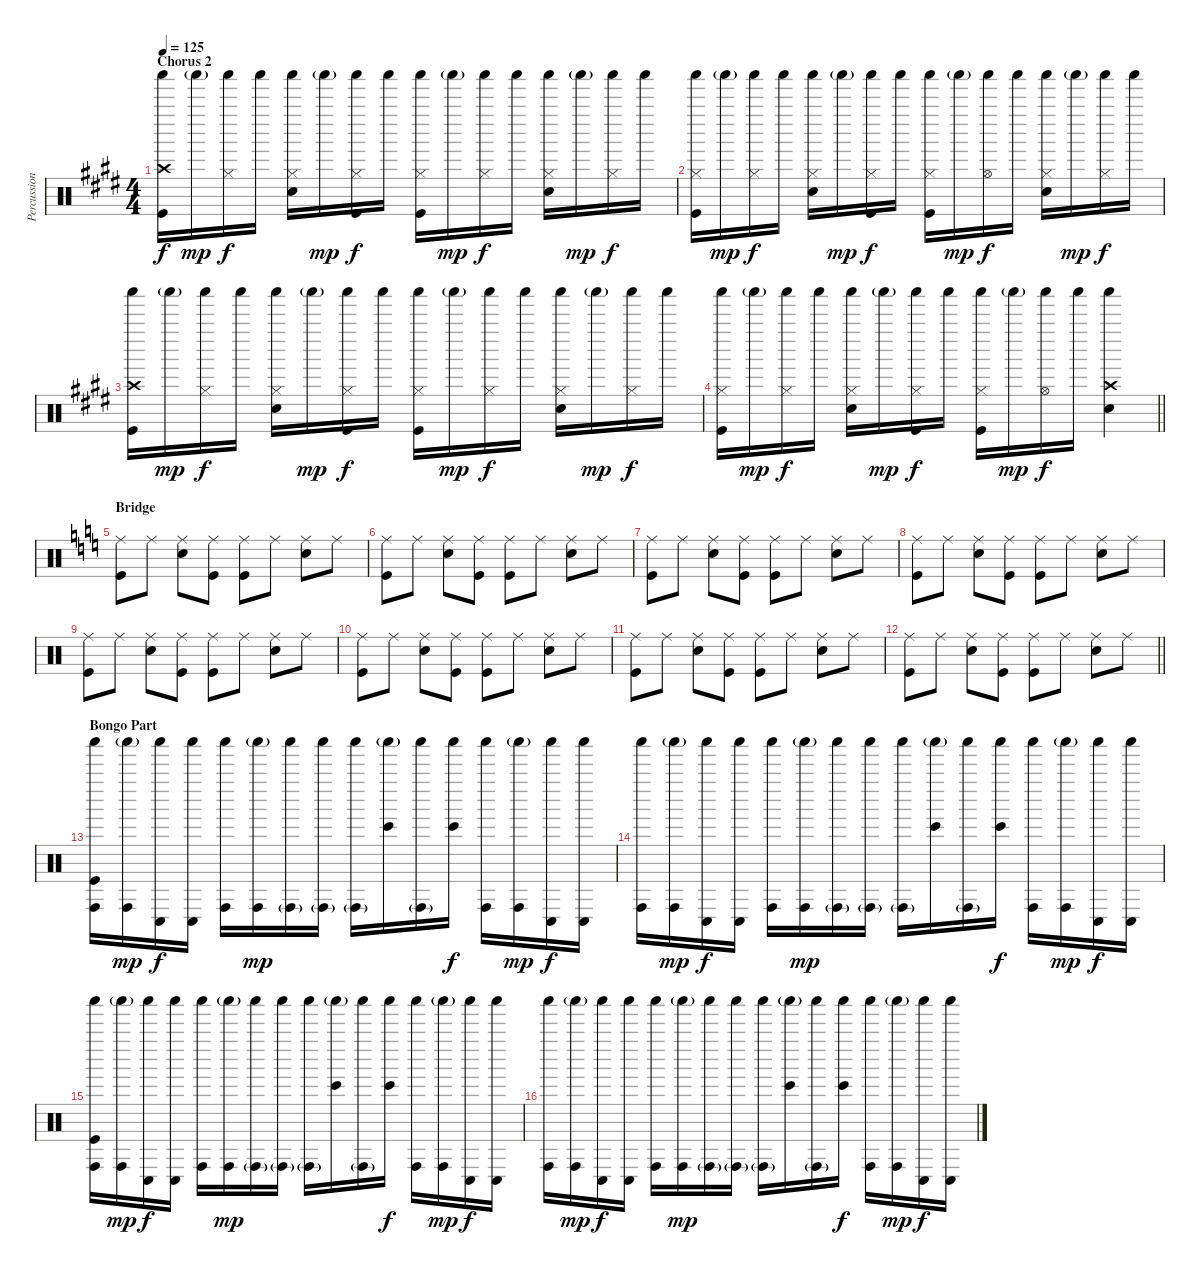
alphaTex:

\track ("Percussion" "Percussion") {instrument percussion}
\staff {score}
\articulation defaults
\ts (4 4)
\section ("" "Chorus 2")
\tempo 125
\clef neutral
\ks c#minor
("Crash high (hit)" "Shaker (hit)" "Kick (hit)").16{dy f} "Shaker (hit)"{g}.16{dy mp} ("Hi-Hat (closed)" "Shaker (hit)").16{dy f} "Shaker (hit)".16 ("Hi-Hat (closed)" "Shaker (hit)" "Electric Snare (hit)").16 "Shaker (hit)"{g}.16{dy mp} ("Hi-Hat (closed)" "Shaker (hit)" "Kick (hit)").16{dy f} "Shaker (hit)".16 ("Hi-Hat (closed)" "Shaker (hit)" "Kick (hit)").16 "Shaker (hit)"{g}.16{dy mp} ("Hi-Hat (closed)" "Shaker (hit)").16{dy f} "Shaker (hit)".16 ("Hi-Hat (closed)" "Shaker (hit)" "Electric Snare (hit)").16 "Shaker (hit)"{g}.16{dy mp} ("Hi-Hat (closed)" "Shaker (hit)").16{dy f} "Shaker (hit)".16 |
("Hi-Hat (closed)" "Shaker (hit)" "Kick (hit)").16 "Shaker (hit)"{g}.16{dy mp} ("Hi-Hat (closed)" "Shaker (hit)").16{dy f} "Shaker (hit)".16 ("Hi-Hat (closed)" "Shaker (hit)" "Electric Snare (hit)").16 "Shaker (hit)"{g}.16{dy mp} ("Hi-Hat (closed)" "Shaker (hit)" "Kick (hit)").16{dy f} "Shaker (hit)".16 ("Hi-Hat (closed)" "Shaker (hit)" "Kick (hit)").16 "Shaker (hit)"{g}.16{dy mp} ("Hi-Hat (open)" "Shaker (hit)").16{dy f} "Shaker (hit)".16 ("Hi-Hat (closed)" "Shaker (hit)" "Electric Snare (hit)").16 "Shaker (hit)"{g}.16{dy mp} ("Hi-Hat (closed)" "Shaker (hit)").16{dy f} "Shaker (hit)".16 |
("Crash high (hit)" "Shaker (hit)" "Kick (hit)").16 "Shaker (hit)"{g}.16{dy mp} ("Hi-Hat (closed)" "Shaker (hit)").16{dy f} "Shaker (hit)".16 ("Hi-Hat (closed)" "Shaker (hit)" "Electric Snare (hit)").16 "Shaker (hit)"{g}.16{dy mp} ("Hi-Hat (closed)" "Shaker (hit)" "Kick (hit)").16{dy f} "Shaker (hit)".16 ("Hi-Hat (closed)" "Shaker (hit)" "Kick (hit)").16 "Shaker (hit)"{g}.16{dy mp} ("Hi-Hat (closed)" "Shaker (hit)").16{dy f} "Shaker (hit)".16 ("Hi-Hat (closed)" "Shaker (hit)" "Electric Snare (hit)").16 "Shaker (hit)"{g}.16{dy mp} ("Hi-Hat (closed)" "Shaker (hit)").16{dy f} "Shaker (hit)".16 |
\barLineRight lightlight
("Hi-Hat (closed)" "Shaker (hit)" "Kick (hit)").16 "Shaker (hit)"{g}.16{dy mp} ("Hi-Hat (closed)" "Shaker (hit)").16{dy f} "Shaker (hit)".16 ("Hi-Hat (closed)" "Shaker (hit)" "Electric Snare (hit)").16 "Shaker (hit)"{g}.16{dy mp} ("Hi-Hat (closed)" "Shaker (hit)" "Kick (hit)").16{dy f} "Shaker (hit)".16 ("Hi-Hat (closed)" "Shaker (hit)" "Kick (hit)").16 "Shaker (hit)"{g}.16{dy mp} ("Hi-Hat (open)" "Shaker (hit)").16{dy f} "Shaker (hit)".16 ("Crash high (hit)" "Shaker (hit)" "Electric Snare (hit)").4 |
\section ("" "Bridge")
\ks c
("Ride (middle)" "Kick (hit)").8 "Ride (middle)".8 ("Ride (middle)" "Electric Snare (hit)").8 ("Ride (middle)" "Kick (hit)").8 ("Ride (middle)" "Kick (hit)").8 "Ride (middle)".8 ("Ride (middle)" "Electric Snare (hit)").8 "Ride (middle)".8 |
("Ride (middle)" "Kick (hit)").8 "Ride (middle)".8 ("Ride (middle)" "Electric Snare (hit)").8 ("Ride (middle)" "Kick (hit)").8 ("Ride (middle)" "Kick (hit)").8 "Ride (middle)".8 ("Ride (middle)" "Electric Snare (hit)").8 "Ride (middle)".8 |
("Ride (middle)" "Kick (hit)").8 "Ride (middle)".8 ("Ride (middle)" "Electric Snare (hit)").8 ("Ride (middle)" "Kick (hit)").8 ("Ride (middle)" "Kick (hit)").8 "Ride (middle)".8 ("Ride (middle)" "Electric Snare (hit)").8 "Ride (middle)".8 |
("Ride (middle)" "Kick (hit)").8 "Ride (middle)".8 ("Ride (middle)" "Electric Snare (hit)").8 ("Ride (middle)" "Kick (hit)").8 ("Ride (middle)" "Kick (hit)").8 "Ride (middle)".8 ("Ride (middle)" "Electric Snare (hit)").8 "Ride (middle)".8 |
("Ride (middle)" "Kick (hit)").8 "Ride (middle)".8 ("Ride (middle)" "Electric Snare (hit)").8 ("Ride (middle)" "Kick (hit)").8 ("Ride (middle)" "Kick (hit)").8 "Ride (middle)".8 ("Ride (middle)" "Electric Snare (hit)").8 "Ride (middle)".8 |
("Ride (middle)" "Kick (hit)").8 "Ride (middle)".8 ("Ride (middle)" "Electric Snare (hit)").8 ("Ride (middle)" "Kick (hit)").8 ("Ride (middle)" "Kick (hit)").8 "Ride (middle)".8 ("Ride (middle)" "Electric Snare (hit)").8 "Ride (middle)".8 |
("Ride (middle)" "Kick (hit)").8 "Ride (middle)".8 ("Ride (middle)" "Electric Snare (hit)").8 ("Ride (middle)" "Kick (hit)").8 ("Ride (middle)" "Kick (hit)").8 "Ride (middle)".8 ("Ride (middle)" "Electric Snare (hit)").8 "Ride (middle)".8 |
\barLineRight lightlight
("Ride (middle)" "Kick (hit)").8 "Ride (middle)".8 ("Ride (middle)" "Electric Snare (hit)").8 ("Ride (middle)" "Kick (hit)").8 ("Ride (middle)" "Kick (hit)").8 "Ride (middle)".8 ("Ride (middle)" "Electric Snare (hit)").8 "Ride (middle)".8 |
\section ("" "Bongo Part")
("Shaker (hit)" "Conga high (hit)" "Kick (hit)").16 ("Shaker (hit)"{g} "Conga high (hit)").16{dy mp} ("Shaker (hit)" "Conga low (hit)").16{dy f} ("Shaker (hit)" "Conga low (hit)").16 ("Shaker (hit)" "Conga high (hit)").16 ("Shaker (hit)"{g} "Conga high (hit)").16{dy mp} ("Shaker (hit)" "Conga high (hit)"{g}).16 ("Shaker (hit)" "Conga high (hit)"{g}).16 ("Shaker (hit)" "Conga high (hit)"{g}).16 ("Shaker (hit)"{g} "Bongo High (hit)").16 ("Shaker (hit)" "Conga high (hit)"{g}).16 ("Shaker (hit)" "Bongo High (hit)").16{dy f} ("Shaker (hit)" "Conga high (hit)").16 ("Shaker (hit)"{g} "Conga high (hit)").16{dy mp} ("Shaker (hit)" "Conga low (hit)").16{dy f} ("Shaker (hit)" "Conga low (hit)").16 |
("Shaker (hit)" "Conga high (hit)").16 ("Shaker (hit)"{g} "Conga high (hit)").16{dy mp} ("Shaker (hit)" "Conga low (hit)").16{dy f} ("Shaker (hit)" "Conga low (hit)").16 ("Shaker (hit)" "Conga high (hit)").16 ("Shaker (hit)"{g} "Conga high (hit)").16{dy mp} ("Shaker (hit)" "Conga high (hit)"{g}).16 ("Shaker (hit)" "Conga high (hit)"{g}).16 ("Shaker (hit)" "Conga high (hit)"{g}).16 ("Shaker (hit)"{g} "Bongo High (hit)").16 ("Shaker (hit)" "Conga high (hit)"{g}).16 ("Shaker (hit)" "Bongo High (hit)").16{dy f} ("Shaker (hit)" "Conga high (hit)").16 ("Shaker (hit)"{g} "Conga high (hit)").16{dy mp} ("Shaker (hit)" "Conga low (hit)").16{dy f} ("Shaker (hit)" "Conga low (hit)").16 |
("Shaker (hit)" "Conga high (hit)" "Kick (hit)").16 ("Shaker (hit)"{g} "Conga high (hit)").16{dy mp} ("Shaker (hit)" "Conga low (hit)").16{dy f} ("Shaker (hit)" "Conga low (hit)").16 ("Shaker (hit)" "Conga high (hit)").16 ("Shaker (hit)"{g} "Conga high (hit)").16{dy mp} ("Shaker (hit)" "Conga high (hit)"{g}).16 ("Shaker (hit)" "Conga high (hit)"{g}).16 ("Shaker (hit)" "Conga high (hit)"{g}).16 ("Shaker (hit)"{g} "Bongo High (hit)").16 ("Shaker (hit)" "Conga high (hit)"{g}).16 ("Shaker (hit)" "Bongo High (hit)").16{dy f} ("Shaker (hit)" "Conga high (hit)").16 ("Shaker (hit)"{g} "Conga high (hit)").16{dy mp} ("Shaker (hit)" "Conga low (hit)").16{dy f} ("Shaker (hit)" "Conga low (hit)").16 |
("Shaker (hit)" "Conga high (hit)").16 ("Shaker (hit)"{g} "Conga high (hit)").16{dy mp} ("Shaker (hit)" "Conga low (hit)").16{dy f} ("Shaker (hit)" "Conga low (hit)").16 ("Shaker (hit)" "Conga high (hit)").16 ("Shaker (hit)"{g} "Conga high (hit)").16{dy mp} ("Shaker (hit)" "Conga high (hit)"{g}).16 ("Shaker (hit)" "Conga high (hit)"{g}).16 ("Shaker (hit)" "Conga high (hit)"{g}).16 ("Shaker (hit)"{g} "Bongo High (hit)").16 ("Shaker (hit)" "Conga high (hit)"{g}).16 ("Shaker (hit)" "Bongo High (hit)").16{dy f} ("Shaker (hit)" "Conga high (hit)").16 ("Shaker (hit)"{g} "Conga high (hit)").16{dy mp} ("Shaker (hit)" "Conga low (hit)").16{dy f} ("Shaker (hit)" "Conga low (hit)").16
